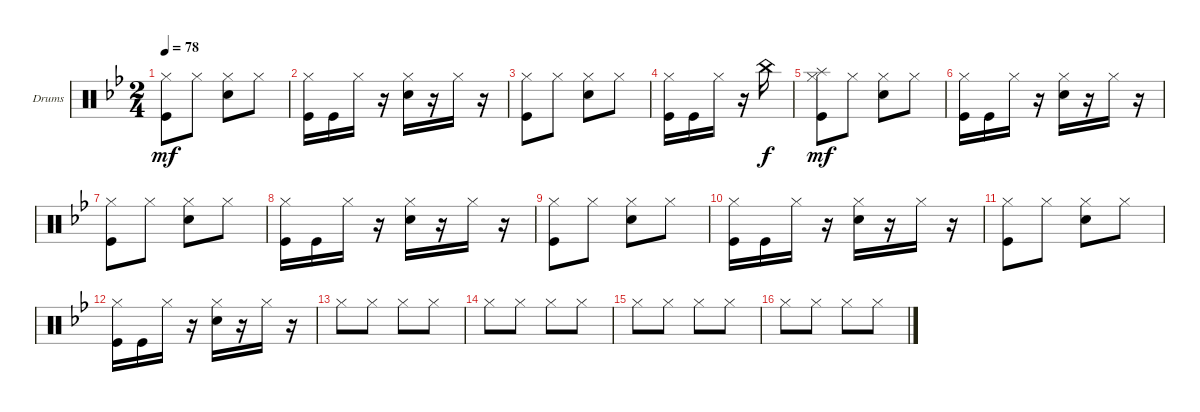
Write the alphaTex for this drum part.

\defaultSystemsLayout 4
\bracketExtendMode groupsimilarinstruments
\firstSystemTrackNameOrientation horizontal
\otherSystemsTrackNameOrientation horizontal
\track ("Катя" "Drums") {instrument percussion}
\staff {score}
\articulation defaults
\ts (2 4)
\tempo 78
\clef neutral
\ks gminor
("Kick (hit)" "Hi-Hat (closed)").8{dy mf} "Hi-Hat (closed)".8 ("Hi-Hat (closed)" "Snare (hit) 2").8 "Hi-Hat (closed)".8 |
("Hi-Hat (closed)" "Kick (hit)").16 "Kick (hit)".16 "Hi-Hat (closed)".16 r.16 ("Hi-Hat (closed)" "Snare (hit) 2").16 r.16 "Hi-Hat (closed)".16 r.16 |
("Kick (hit)" "Hi-Hat (closed)").8 "Hi-Hat (closed)".8 ("Hi-Hat (closed)" "Snare (hit) 2").8 "Hi-Hat (closed)".8 |
("Hi-Hat (closed)" "Kick (hit)").16 "Kick (hit)".16 "Hi-Hat (closed)".16 r.16 "China (hit)".16{dy f} |
("Kick (hit)" "Hi-Hat (closed)" "Splash (hit)").8{dy mf} "Hi-Hat (closed)".8 ("Hi-Hat (closed)" "Snare (hit) 2").8 "Hi-Hat (closed)".8 |
("Hi-Hat (closed)" "Kick (hit)").16 "Kick (hit)".16 "Hi-Hat (closed)".16 r.16 ("Hi-Hat (closed)" "Snare (hit) 2").16 r.16 "Hi-Hat (closed)".16 r.16 |
("Kick (hit)" "Hi-Hat (closed)").8 "Hi-Hat (closed)".8 ("Hi-Hat (closed)" "Snare (hit) 2").8 "Hi-Hat (closed)".8 |
("Hi-Hat (closed)" "Kick (hit)").16 "Kick (hit)".16 "Hi-Hat (closed)".16 r.16 ("Hi-Hat (closed)" "Snare (hit) 2").16 r.16 "Hi-Hat (closed)".16 r.16 |
("Kick (hit)" "Hi-Hat (closed)").8 "Hi-Hat (closed)".8 ("Hi-Hat (closed)" "Snare (hit) 2").8 "Hi-Hat (closed)".8 |
("Hi-Hat (closed)" "Kick (hit)").16 "Kick (hit)".16 "Hi-Hat (closed)".16 r.16 ("Hi-Hat (closed)" "Snare (hit) 2").16 r.16 "Hi-Hat (closed)".16 r.16 |
("Kick (hit)" "Hi-Hat (closed)").8 "Hi-Hat (closed)".8 ("Hi-Hat (closed)" "Snare (hit) 2").8 "Hi-Hat (closed)".8 |
("Hi-Hat (closed)" "Kick (hit)").16 "Kick (hit)".16 "Hi-Hat (closed)".16 r.16 ("Hi-Hat (closed)" "Snare (hit) 2").16 r.16 "Hi-Hat (closed)".16 r.16 |
"Hi-Hat (closed)".8 "Hi-Hat (closed)".8 "Hi-Hat (closed)".8 "Hi-Hat (closed)".8 |
"Hi-Hat (closed)".8 "Hi-Hat (closed)".8 "Hi-Hat (closed)".8 "Hi-Hat (closed)".8 |
"Hi-Hat (closed)".8 "Hi-Hat (closed)".8 "Hi-Hat (closed)".8 "Hi-Hat (closed)".8 |
"Hi-Hat (closed)".8 "Hi-Hat (closed)".8 "Hi-Hat (closed)".8 "Hi-Hat (closed)".8
